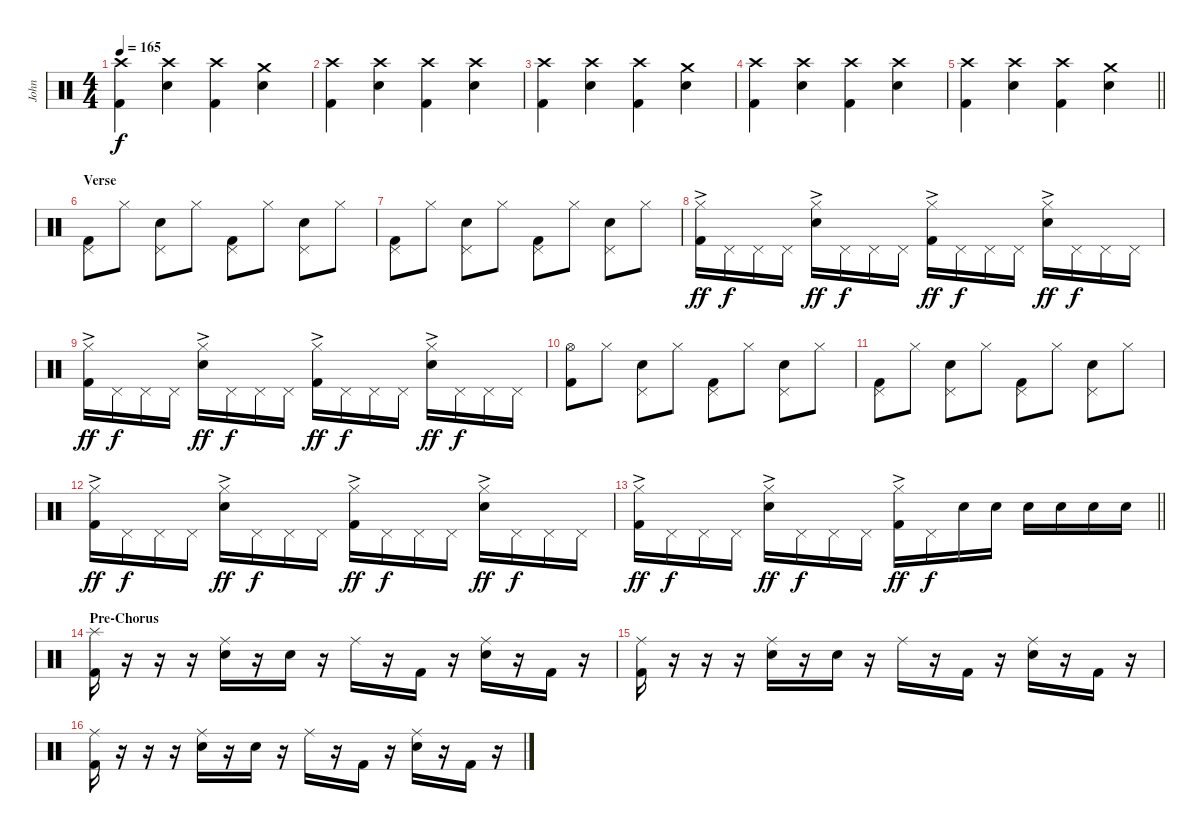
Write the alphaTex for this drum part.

\track ("John" "John") {instrument percussion}
\staff {score}
\articulation defaults
\ts (4 4)
\tempo 165
\clef neutral
\ks c
("Crash high (hit)" "Kick (hit) 2").4{dy f} ("Crash high (hit)" "Electric Snare (hit)").4 ("Crash high (hit)" "Kick (hit) 2").4 ("Crash medium (hit)" "Electric Snare (hit)").4 |
("Crash high (hit)" "Kick (hit) 2").4 ("Crash high (hit)" "Electric Snare (hit)").4 ("Crash high (hit)" "Kick (hit) 2").4 ("Crash high (hit)" "Electric Snare (hit)").4 |
("Crash high (hit)" "Kick (hit) 2").4 ("Crash high (hit)" "Electric Snare (hit)").4 ("Crash high (hit)" "Kick (hit) 2").4 ("Crash medium (hit)" "Electric Snare (hit)").4 |
("Crash high (hit)" "Kick (hit) 2").4 ("Crash high (hit)" "Electric Snare (hit)").4 ("Crash high (hit)" "Kick (hit) 2").4 ("Crash high (hit)" "Electric Snare (hit)").4 |
\barLineRight lightlight
("Crash high (hit)" "Kick (hit) 2").4 ("Crash high (hit)" "Electric Snare (hit)").4 ("Crash high (hit)" "Kick (hit) 2").4 ("Crash medium (hit)" "Electric Snare (hit)").4 |
\section ("" "Verse")
("Pedal Hi-Hat (hit)" "Kick (hit) 2").8 "Hi-Hat (closed)".8 ("Pedal Hi-Hat (hit)" "Electric Snare (hit)").8 "Hi-Hat (closed)".8 ("Pedal Hi-Hat (hit)" "Kick (hit) 2").8 "Hi-Hat (closed)".8 ("Pedal Hi-Hat (hit)" "Electric Snare (hit)").8 "Hi-Hat (closed)".8 |
("Pedal Hi-Hat (hit)" "Kick (hit) 2").8 "Hi-Hat (closed)".8 ("Pedal Hi-Hat (hit)" "Electric Snare (hit)").8 "Hi-Hat (closed)".8 ("Pedal Hi-Hat (hit)" "Kick (hit) 2").8 "Hi-Hat (closed)".8 ("Pedal Hi-Hat (hit)" "Electric Snare (hit)").8 "Hi-Hat (closed)".8 |
("Hi-Hat (closed)"{ac} "Kick (hit) 2").16{dy ff} "Pedal Hi-Hat (hit)".16{dy f} "Pedal Hi-Hat (hit)".16 "Pedal Hi-Hat (hit)".16 ("Hi-Hat (closed)"{ac} "Electric Snare (hit)").16{dy ff} "Pedal Hi-Hat (hit)".16{dy f} "Pedal Hi-Hat (hit)".16 "Pedal Hi-Hat (hit)".16 ("Hi-Hat (closed)"{ac} "Kick (hit) 2").16{dy ff} "Pedal Hi-Hat (hit)".16{dy f} "Pedal Hi-Hat (hit)".16 "Pedal Hi-Hat (hit)".16 ("Hi-Hat (closed)"{ac} "Electric Snare (hit)").16{dy ff} "Pedal Hi-Hat (hit)".16{dy f} "Pedal Hi-Hat (hit)".16 "Pedal Hi-Hat (hit)".16 |
("Hi-Hat (closed)"{ac} "Kick (hit) 2").16{dy ff} "Pedal Hi-Hat (hit)".16{dy f} "Pedal Hi-Hat (hit)".16 "Pedal Hi-Hat (hit)".16 ("Hi-Hat (closed)"{ac} "Electric Snare (hit)").16{dy ff} "Pedal Hi-Hat (hit)".16{dy f} "Pedal Hi-Hat (hit)".16 "Pedal Hi-Hat (hit)".16 ("Hi-Hat (closed)"{ac} "Kick (hit) 2").16{dy ff} "Pedal Hi-Hat (hit)".16{dy f} "Pedal Hi-Hat (hit)".16 "Pedal Hi-Hat (hit)".16 ("Hi-Hat (closed)"{ac} "Electric Snare (hit)").16{dy ff} "Pedal Hi-Hat (hit)".16{dy f} "Pedal Hi-Hat (hit)".16 "Pedal Hi-Hat (hit)".16 |
("Hi-Hat (open)" "Kick (hit) 2").8 "Hi-Hat (closed)".8 ("Pedal Hi-Hat (hit)" "Electric Snare (hit)").8 "Hi-Hat (closed)".8 ("Pedal Hi-Hat (hit)" "Kick (hit) 2").8 "Hi-Hat (closed)".8 ("Pedal Hi-Hat (hit)" "Electric Snare (hit)").8 "Hi-Hat (closed)".8 |
("Pedal Hi-Hat (hit)" "Kick (hit) 2").8 "Hi-Hat (closed)".8 ("Pedal Hi-Hat (hit)" "Electric Snare (hit)").8 "Hi-Hat (closed)".8 ("Pedal Hi-Hat (hit)" "Kick (hit) 2").8 "Hi-Hat (closed)".8 ("Pedal Hi-Hat (hit)" "Electric Snare (hit)").8 "Hi-Hat (closed)".8 |
("Hi-Hat (closed)"{ac} "Kick (hit) 2").16{dy ff} "Pedal Hi-Hat (hit)".16{dy f} "Pedal Hi-Hat (hit)".16 "Pedal Hi-Hat (hit)".16 ("Hi-Hat (closed)"{ac} "Electric Snare (hit)").16{dy ff} "Pedal Hi-Hat (hit)".16{dy f} "Pedal Hi-Hat (hit)".16 "Pedal Hi-Hat (hit)".16 ("Hi-Hat (closed)"{ac} "Kick (hit) 2").16{dy ff} "Pedal Hi-Hat (hit)".16{dy f} "Pedal Hi-Hat (hit)".16 "Pedal Hi-Hat (hit)".16 ("Hi-Hat (closed)"{ac} "Electric Snare (hit)").16{dy ff} "Pedal Hi-Hat (hit)".16{dy f} "Pedal Hi-Hat (hit)".16 "Pedal Hi-Hat (hit)".16 |
\barLineRight lightlight
("Hi-Hat (closed)"{ac} "Kick (hit) 2").16{dy ff} "Pedal Hi-Hat (hit)".16{dy f} "Pedal Hi-Hat (hit)".16 "Pedal Hi-Hat (hit)".16 ("Hi-Hat (closed)"{ac} "Electric Snare (hit)").16{dy ff} "Pedal Hi-Hat (hit)".16{dy f} "Pedal Hi-Hat (hit)".16 "Pedal Hi-Hat (hit)".16 ("Hi-Hat (closed)"{ac} "Kick (hit) 2").16{dy ff} "Pedal Hi-Hat (hit)".16{dy f} "Electric Snare (hit)".16 "Electric Snare (hit)".16 "Electric Snare (hit)".16 "Electric Snare (hit)".16 "Electric Snare (hit)".16 "Electric Snare (hit)".16 |
\section ("" "Pre-Chorus")
("Splash (hit)" "Kick (hit) 2").16 r.16 r.16 r.16 ("Ride (middle)" "Electric Snare (hit)").16 r.16 "Electric Snare (hit)".16 r.16 "Ride (middle)".16 r.16 "Kick (hit) 2".16 r.16 ("Ride (middle)" "Electric Snare (hit)").16 r.16 "Kick (hit) 2".16 r.16 |
("Ride (middle)" "Kick (hit) 2").16 r.16 r.16 r.16 ("Ride (middle)" "Electric Snare (hit)").16 r.16 "Electric Snare (hit)".16 r.16 "Ride (middle)".16 r.16 "Kick (hit) 2".16 r.16 ("Ride (middle)" "Electric Snare (hit)").16 r.16 "Kick (hit) 2".16 r.16 |
("Ride (middle)" "Kick (hit) 2").16 r.16 r.16 r.16 ("Ride (middle)" "Electric Snare (hit)").16 r.16 "Electric Snare (hit)".16 r.16 "Ride (middle)".16 r.16 "Kick (hit) 2".16 r.16 ("Ride (middle)" "Electric Snare (hit)").16 r.16 "Kick (hit) 2".16 r.16
